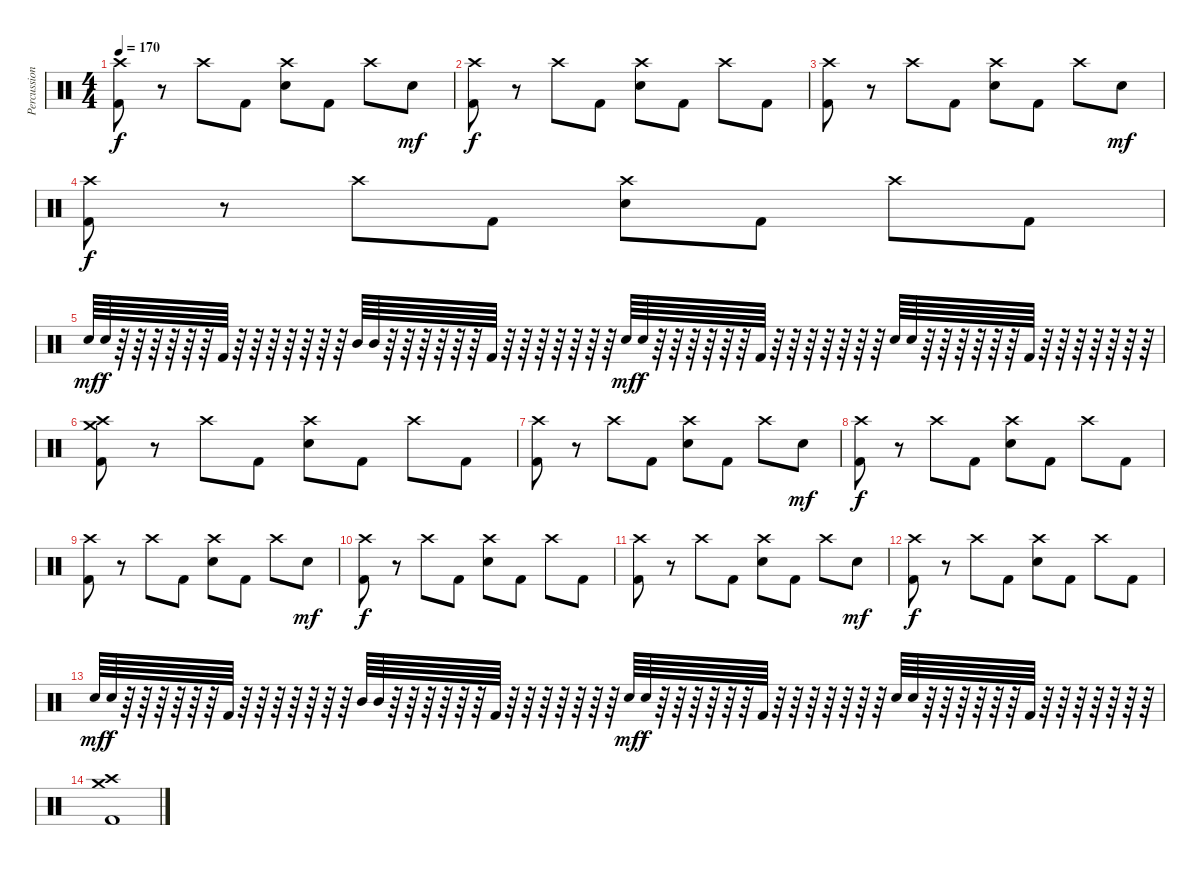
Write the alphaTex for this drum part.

\track ("Percussions" "Percussion") {instrument percussion}
\staff {score}
\articulation defaults
\ts (4 4)
\tempo 170
\clef neutral
\ks c
("Kick (hit) 2" "Crash high (hit)").8{dy f} r.8 "Crash high (hit)".8 "Kick (hit) 2".8 ("Electric Snare (hit)" "Crash high (hit)").8 "Kick (hit) 2".8 "Crash high (hit)".8 "Electric Snare (hit)".8{dy mf} |
("Kick (hit) 2" "Crash high (hit)").8{dy f} r.8 "Crash high (hit)".8 "Kick (hit) 2".8 ("Electric Snare (hit)" "Crash high (hit)").8 "Kick (hit) 2".8 "Crash high (hit)".8 "Kick (hit) 2".8 |
("Kick (hit) 2" "Crash high (hit)").8 r.8 "Crash high (hit)".8 "Kick (hit) 2".8 ("Electric Snare (hit)" "Crash high (hit)").8 "Kick (hit) 2".8 "Crash high (hit)".8 "Electric Snare (hit)".8{dy mf} |
("Kick (hit) 2" "Crash high (hit)").8{dy f} r.8 "Crash high (hit)".8 "Kick (hit) 2".8 ("Electric Snare (hit)" "Crash high (hit)").8 "Kick (hit) 2".8 "Crash high (hit)".8 "Kick (hit) 2".8 |
"Electric Snare (hit)".64{dy mf} "Electric Snare (hit)".64{dy f} r.64 r.64 r.64 r.64 r.64 r.64 "Kick (hit) 2".64 r.64 r.64 r.64 r.64 r.64 r.64 r.64 "Mid Tom (hit)".64 "Mid Tom (hit)".64 r.64 r.64 r.64 r.64 r.64 r.64 "Kick (hit) 2".64 r.64 r.64 r.64 r.64 r.64 r.64 r.64 "Electric Snare (hit)".64{dy mf} "Electric Snare (hit)".64{dy f} r.64 r.64 r.64 r.64 r.64 r.64 "Kick (hit) 2".64 r.64 r.64 r.64 r.64 r.64 r.64 r.64 "Electric Snare (hit)".64 "Electric Snare (hit)".64 r.64 r.64 r.64 r.64 r.64 r.64 "Kick (hit) 2".64 r.64 r.64 r.64 r.64 r.64 r.64 r.64 |
("Kick (hit) 2" "Crash medium (hit)" "Crash high (hit)").8 r.8 "Crash high (hit)".8 "Kick (hit) 2".8 ("Electric Snare (hit)" "Crash high (hit)").8 "Kick (hit) 2".8 "Crash high (hit)".8 "Kick (hit) 2".8 |
("Kick (hit) 2" "Crash high (hit)").8 r.8 "Crash high (hit)".8 "Kick (hit) 2".8 ("Electric Snare (hit)" "Crash high (hit)").8 "Kick (hit) 2".8 "Crash high (hit)".8 "Electric Snare (hit)".8{dy mf} |
("Kick (hit) 2" "Crash high (hit)").8{dy f} r.8 "Crash high (hit)".8 "Kick (hit) 2".8 ("Electric Snare (hit)" "Crash high (hit)").8 "Kick (hit) 2".8 "Crash high (hit)".8 "Kick (hit) 2".8 |
("Kick (hit) 2" "Crash high (hit)").8 r.8 "Crash high (hit)".8 "Kick (hit) 2".8 ("Electric Snare (hit)" "Crash high (hit)").8 "Kick (hit) 2".8 "Crash high (hit)".8 "Electric Snare (hit)".8{dy mf} |
("Kick (hit) 2" "Crash high (hit)").8{dy f} r.8 "Crash high (hit)".8 "Kick (hit) 2".8 ("Electric Snare (hit)" "Crash high (hit)").8 "Kick (hit) 2".8 "Crash high (hit)".8 "Kick (hit) 2".8 |
("Kick (hit) 2" "Crash high (hit)").8 r.8 "Crash high (hit)".8 "Kick (hit) 2".8 ("Electric Snare (hit)" "Crash high (hit)").8 "Kick (hit) 2".8 "Crash high (hit)".8 "Electric Snare (hit)".8{dy mf} |
("Kick (hit) 2" "Crash high (hit)").8{dy f} r.8 "Crash high (hit)".8 "Kick (hit) 2".8 ("Electric Snare (hit)" "Crash high (hit)").8 "Kick (hit) 2".8 "Crash high (hit)".8 "Kick (hit) 2".8 |
"Electric Snare (hit)".64{dy mf} "Electric Snare (hit)".64{dy f} r.64 r.64 r.64 r.64 r.64 r.64 "Kick (hit) 2".64 r.64 r.64 r.64 r.64 r.64 r.64 r.64 "Mid Tom (hit)".64 "Mid Tom (hit)".64 r.64 r.64 r.64 r.64 r.64 r.64 "Kick (hit) 2".64 r.64 r.64 r.64 r.64 r.64 r.64 r.64 "Electric Snare (hit)".64{dy mf} "Electric Snare (hit)".64{dy f} r.64 r.64 r.64 r.64 r.64 r.64 "Kick (hit) 2".64 r.64 r.64 r.64 r.64 r.64 r.64 r.64 "Electric Snare (hit)".64 "Electric Snare (hit)".64 r.64 r.64 r.64 r.64 r.64 r.64 "Kick (hit) 2".64 r.64 r.64 r.64 r.64 r.64 r.64 r.64 |
("Kick (hit) 2" "Crash medium (hit)" "Crash high (hit)").1
